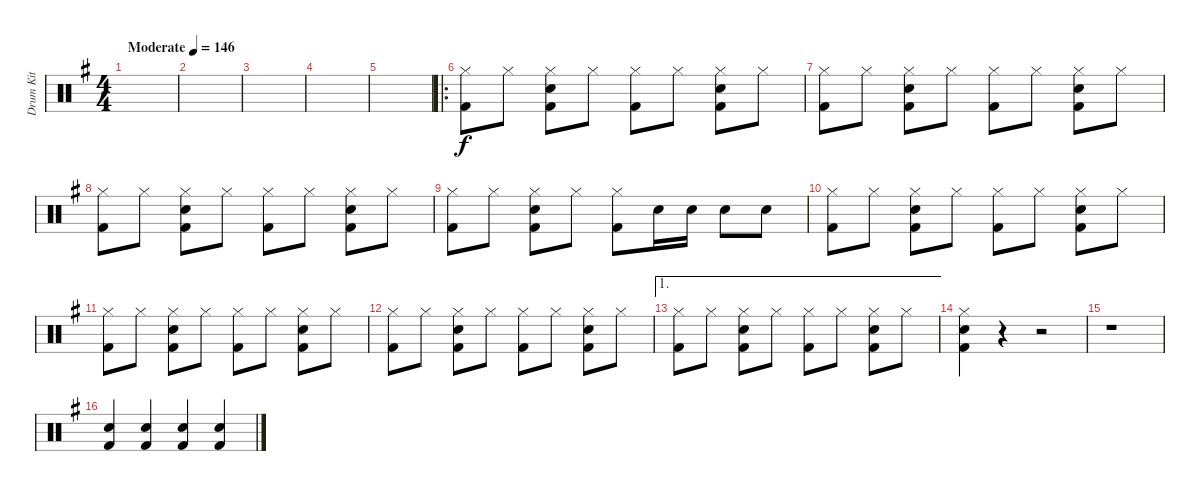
\track ("Drum Kit" "Drum Kit") {instrument percussion}
\staff {score}
\articulation defaults
\ts (4 4)
\tempo (146 "Moderate")
\clef neutral
\ks g
|
|
|
|
|
\ro
("Hi-Hat (closed)" "Kick (hit) 2").8 "Hi-Hat (closed)".8 ("Hi-Hat (closed)" "Electric Snare (hit)" "Kick (hit) 2").8 "Hi-Hat (closed)".8 ("Hi-Hat (closed)" "Kick (hit) 2").8 "Hi-Hat (closed)".8 ("Hi-Hat (closed)" "Electric Snare (hit)" "Kick (hit) 2").8 "Hi-Hat (closed)".8 |
("Hi-Hat (closed)" "Kick (hit) 2").8 "Hi-Hat (closed)".8 ("Hi-Hat (closed)" "Electric Snare (hit)" "Kick (hit) 2").8 "Hi-Hat (closed)".8 ("Hi-Hat (closed)" "Kick (hit) 2").8 "Hi-Hat (closed)".8 ("Hi-Hat (closed)" "Electric Snare (hit)" "Kick (hit) 2").8 "Hi-Hat (closed)".8 |
("Hi-Hat (closed)" "Kick (hit) 2").8 "Hi-Hat (closed)".8 ("Hi-Hat (closed)" "Electric Snare (hit)" "Kick (hit) 2").8 "Hi-Hat (closed)".8 ("Hi-Hat (closed)" "Kick (hit) 2").8 "Hi-Hat (closed)".8 ("Hi-Hat (closed)" "Electric Snare (hit)" "Kick (hit) 2").8 "Hi-Hat (closed)".8 |
("Hi-Hat (closed)" "Kick (hit) 2").8 "Hi-Hat (closed)".8 ("Hi-Hat (closed)" "Electric Snare (hit)" "Kick (hit) 2").8 "Hi-Hat (closed)".8 ("Hi-Hat (closed)" "Kick (hit) 2").8 "Electric Snare (hit)".16 "Electric Snare (hit)".16 "Electric Snare (hit)".8 "Electric Snare (hit)".8 |
("Hi-Hat (closed)" "Kick (hit) 2").8 "Hi-Hat (closed)".8 ("Hi-Hat (closed)" "Electric Snare (hit)" "Kick (hit) 2").8 "Hi-Hat (closed)".8 ("Hi-Hat (closed)" "Kick (hit) 2").8 "Hi-Hat (closed)".8 ("Hi-Hat (closed)" "Electric Snare (hit)" "Kick (hit) 2").8 "Hi-Hat (closed)".8 |
("Hi-Hat (closed)" "Kick (hit) 2").8 "Hi-Hat (closed)".8 ("Hi-Hat (closed)" "Electric Snare (hit)" "Kick (hit) 2").8 "Hi-Hat (closed)".8 ("Hi-Hat (closed)" "Kick (hit) 2").8 "Hi-Hat (closed)".8 ("Hi-Hat (closed)" "Electric Snare (hit)" "Kick (hit) 2").8 "Hi-Hat (closed)".8 |
("Hi-Hat (closed)" "Kick (hit) 2").8 "Hi-Hat (closed)".8 ("Hi-Hat (closed)" "Electric Snare (hit)" "Kick (hit) 2").8 "Hi-Hat (closed)".8 ("Hi-Hat (closed)" "Kick (hit) 2").8 "Hi-Hat (closed)".8 ("Hi-Hat (closed)" "Electric Snare (hit)" "Kick (hit) 2").8 "Hi-Hat (closed)".8 |
\ae 1
("Hi-Hat (closed)" "Kick (hit) 2").8 "Hi-Hat (closed)".8 ("Hi-Hat (closed)" "Electric Snare (hit)" "Kick (hit) 2").8 "Hi-Hat (closed)".8 ("Hi-Hat (closed)" "Kick (hit) 2").8 "Hi-Hat (closed)".8 ("Hi-Hat (closed)" "Electric Snare (hit)" "Kick (hit) 2").8 "Hi-Hat (closed)".8 |
("Hi-Hat (closed)" "Electric Snare (hit)" "Kick (hit) 2").4 r.4 r.2 |
r.1 |
("Hand Clap (hit)" "Kick (hit) 2").4 ("Hand Clap (hit)" "Kick (hit) 2").4 ("Hand Clap (hit)" "Kick (hit) 2").4 ("Hand Clap (hit)" "Kick (hit) 2").4
